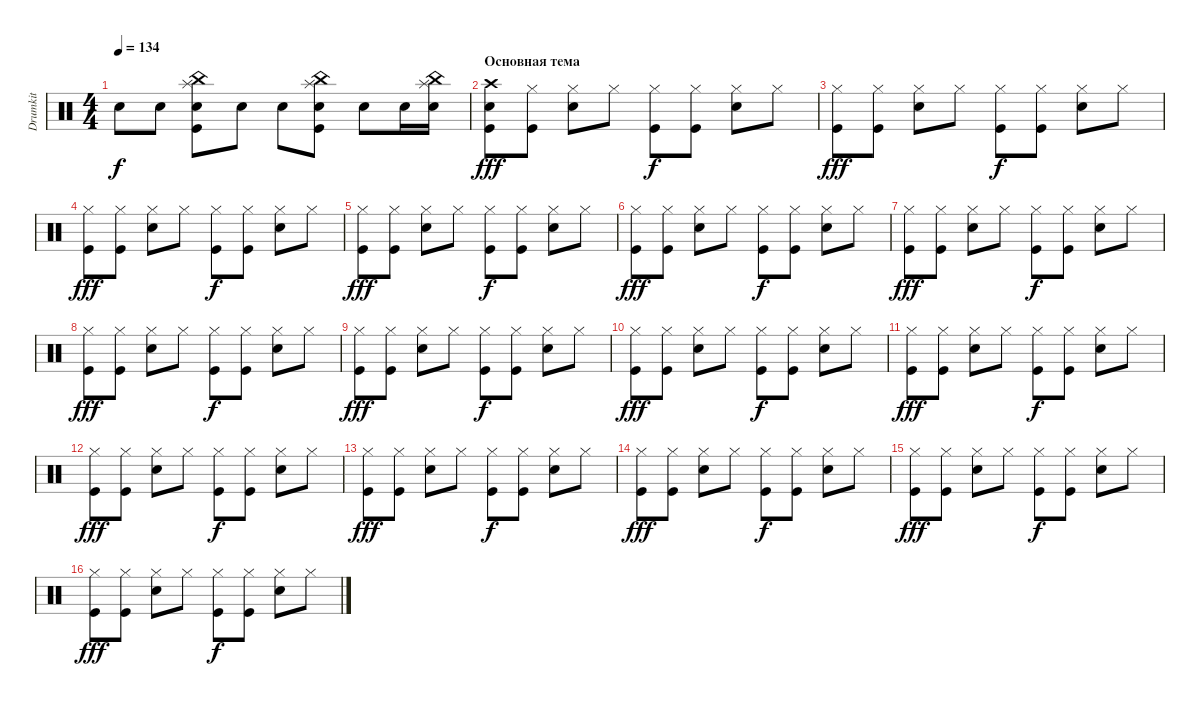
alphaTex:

\track ("Drumkit" "Drumkit") {instrument percussion}
\staff {score}
\articulation defaults
\ts (4 4)
\tempo 134
\clef neutral
\ks c "Snare (hit) 2".8{dy f} "Snare (hit) 2".8
("Snare (hit) 2" "Kick (hit)" "Splash (hit)" "China (hit)").8 "Snare (hit) 2".8 "Snare (hit) 2".8 ("Snare (hit) 2" "Kick (hit)" "China (hit)" "Splash (hit)").8 "Snare (hit) 2".8 "Snare (hit) 2".16 ("Snare (hit) 2" "Splash (hit)" "China (hit)").16 |
\section ("" "Основная тема")
("Crash high (hit)" "Kick (hit)" "Snare (hit) 2").8{dy fff} ("Hi-Hat (closed)" "Kick (hit)").8 ("Hi-Hat (closed)" "Snare (hit) 2").8 "Hi-Hat (closed)".8 ("Hi-Hat (closed)" "Kick (hit)").8{dy f} ("Hi-Hat (closed)" "Kick (hit)").8 ("Hi-Hat (closed)" "Snare (hit) 2").8 "Hi-Hat (closed)".8 |
("Hi-Hat (closed)" "Kick (hit)").8{dy fff} ("Hi-Hat (closed)" "Kick (hit)").8 ("Hi-Hat (closed)" "Snare (hit) 2").8 "Hi-Hat (closed)".8 ("Hi-Hat (closed)" "Kick (hit)").8{dy f} ("Hi-Hat (closed)" "Kick (hit)").8 ("Hi-Hat (closed)" "Snare (hit) 2").8 "Hi-Hat (closed)".8 |
("Hi-Hat (closed)" "Kick (hit)").8{dy fff} ("Hi-Hat (closed)" "Kick (hit)").8 ("Hi-Hat (closed)" "Snare (hit) 2").8 "Hi-Hat (closed)".8 ("Hi-Hat (closed)" "Kick (hit)").8{dy f} ("Hi-Hat (closed)" "Kick (hit)").8 ("Hi-Hat (closed)" "Snare (hit) 2").8 "Hi-Hat (closed)".8 |
("Hi-Hat (closed)" "Kick (hit)").8{dy fff} ("Hi-Hat (closed)" "Kick (hit)").8 ("Hi-Hat (closed)" "Snare (hit) 2").8 "Hi-Hat (closed)".8 ("Hi-Hat (closed)" "Kick (hit)").8{dy f} ("Hi-Hat (closed)" "Kick (hit)").8 ("Hi-Hat (closed)" "Snare (hit) 2").8 "Hi-Hat (closed)".8 |
("Hi-Hat (closed)" "Kick (hit)").8{dy fff} ("Hi-Hat (closed)" "Kick (hit)").8 ("Hi-Hat (closed)" "Snare (hit) 2").8 "Hi-Hat (closed)".8 ("Hi-Hat (closed)" "Kick (hit)").8{dy f} ("Hi-Hat (closed)" "Kick (hit)").8 ("Hi-Hat (closed)" "Snare (hit) 2").8 "Hi-Hat (closed)".8 |
("Hi-Hat (closed)" "Kick (hit)").8{dy fff} ("Hi-Hat (closed)" "Kick (hit)").8 ("Hi-Hat (closed)" "Snare (hit) 2").8 "Hi-Hat (closed)".8 ("Hi-Hat (closed)" "Kick (hit)").8{dy f} ("Hi-Hat (closed)" "Kick (hit)").8 ("Hi-Hat (closed)" "Snare (hit) 2").8 "Hi-Hat (closed)".8 |
("Hi-Hat (closed)" "Kick (hit)").8{dy fff} ("Hi-Hat (closed)" "Kick (hit)").8 ("Hi-Hat (closed)" "Snare (hit) 2").8 "Hi-Hat (closed)".8 ("Hi-Hat (closed)" "Kick (hit)").8{dy f} ("Hi-Hat (closed)" "Kick (hit)").8 ("Hi-Hat (closed)" "Snare (hit) 2").8 "Hi-Hat (closed)".8 |
("Hi-Hat (closed)" "Kick (hit)").8{dy fff} ("Hi-Hat (closed)" "Kick (hit)").8 ("Hi-Hat (closed)" "Snare (hit) 2").8 "Hi-Hat (closed)".8 ("Hi-Hat (closed)" "Kick (hit)").8{dy f} ("Hi-Hat (closed)" "Kick (hit)").8 ("Hi-Hat (closed)" "Snare (hit) 2").8 "Hi-Hat (closed)".8 |
("Hi-Hat (closed)" "Kick (hit)").8{dy fff} ("Hi-Hat (closed)" "Kick (hit)").8 ("Hi-Hat (closed)" "Snare (hit) 2").8 "Hi-Hat (closed)".8 ("Hi-Hat (closed)" "Kick (hit)").8{dy f} ("Hi-Hat (closed)" "Kick (hit)").8 ("Hi-Hat (closed)" "Snare (hit) 2").8 "Hi-Hat (closed)".8 |
("Hi-Hat (closed)" "Kick (hit)").8{dy fff} ("Hi-Hat (closed)" "Kick (hit)").8 ("Hi-Hat (closed)" "Snare (hit) 2").8 "Hi-Hat (closed)".8 ("Hi-Hat (closed)" "Kick (hit)").8{dy f} ("Hi-Hat (closed)" "Kick (hit)").8 ("Hi-Hat (closed)" "Snare (hit) 2").8 "Hi-Hat (closed)".8 |
("Hi-Hat (closed)" "Kick (hit)").8{dy fff} ("Hi-Hat (closed)" "Kick (hit)").8 ("Hi-Hat (closed)" "Snare (hit) 2").8 "Hi-Hat (closed)".8 ("Hi-Hat (closed)" "Kick (hit)").8{dy f} ("Hi-Hat (closed)" "Kick (hit)").8 ("Hi-Hat (closed)" "Snare (hit) 2").8 "Hi-Hat (closed)".8 |
("Hi-Hat (closed)" "Kick (hit)").8{dy fff} ("Hi-Hat (closed)" "Kick (hit)").8 ("Hi-Hat (closed)" "Snare (hit) 2").8 "Hi-Hat (closed)".8 ("Hi-Hat (closed)" "Kick (hit)").8{dy f} ("Hi-Hat (closed)" "Kick (hit)").8 ("Hi-Hat (closed)" "Snare (hit) 2").8 "Hi-Hat (closed)".8 |
("Hi-Hat (closed)" "Kick (hit)").8{dy fff} ("Hi-Hat (closed)" "Kick (hit)").8 ("Hi-Hat (closed)" "Snare (hit) 2").8 "Hi-Hat (closed)".8 ("Hi-Hat (closed)" "Kick (hit)").8{dy f} ("Hi-Hat (closed)" "Kick (hit)").8 ("Hi-Hat (closed)" "Snare (hit) 2").8 "Hi-Hat (closed)".8 |
("Hi-Hat (closed)" "Kick (hit)").8{dy fff} ("Hi-Hat (closed)" "Kick (hit)").8 ("Hi-Hat (closed)" "Snare (hit) 2").8 "Hi-Hat (closed)".8 ("Hi-Hat (closed)" "Kick (hit)").8{dy f} ("Hi-Hat (closed)" "Kick (hit)").8 ("Hi-Hat (closed)" "Snare (hit) 2").8 "Hi-Hat (closed)".8 |
("Hi-Hat (closed)" "Kick (hit)").8{dy fff} ("Hi-Hat (closed)" "Kick (hit)").8 ("Hi-Hat (closed)" "Snare (hit) 2").8 "Hi-Hat (closed)".8 ("Hi-Hat (closed)" "Kick (hit)").8{dy f} ("Hi-Hat (closed)" "Kick (hit)").8 ("Hi-Hat (closed)" "Snare (hit) 2").8 "Hi-Hat (closed)".8
